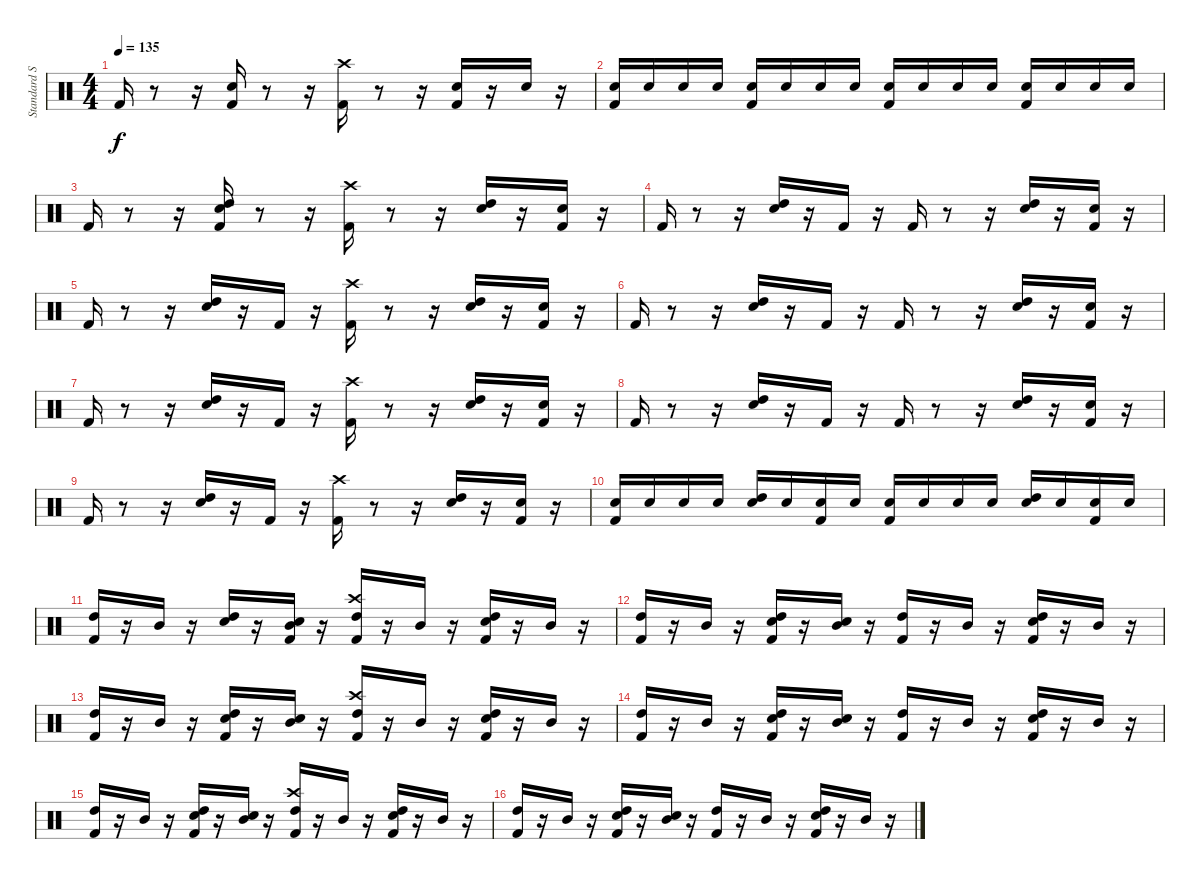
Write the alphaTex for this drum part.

\track ("Standard Set 1" "Standard S") {instrument percussion}
\staff {score}
\articulation defaults
\ts (4 4)
\tempo 135
\clef neutral
\ks c "Kick (hit) 2".16{dy f}
r.8 r.16 ("Snare (hit) 2" "Kick (hit) 2").16 r.8 r.16 ("Kick (hit) 2" "Crash high (hit)").16 r.8 r.16 ("Snare (hit) 2" "Kick (hit) 2").16 r.16 "Snare (hit) 2".16 r.16 |
("Snare (hit) 2" "Kick (hit) 2").16 "Snare (hit) 2".16 "Snare (hit) 2".16 "Snare (hit) 2".16 ("Snare (hit) 2" "Kick (hit) 2").16 "Snare (hit) 2".16 "Snare (hit) 2".16 "Snare (hit) 2".16 ("Snare (hit) 2" "Kick (hit) 2").16 "Snare (hit) 2".16 "Snare (hit) 2".16 "Snare (hit) 2".16 ("Snare (hit) 2" "Kick (hit) 2").16 "Snare (hit) 2".16 "Snare (hit) 2".16 "Snare (hit) 2".16 |
"Kick (hit) 2".16 r.8 r.16 ("Snare (hit) 2" "High Tom (hit)" "Kick (hit) 2").16 r.8 r.16 ("Kick (hit) 2" "Crash high (hit)").16 r.8 r.16 ("Snare (hit) 2" "High Tom (hit)").16 r.16 ("Snare (hit) 2" "Kick (hit) 2").16 r.16 |
"Kick (hit) 2".16 r.8 r.16 ("Snare (hit) 2" "High Tom (hit)").16 r.16 "Kick (hit) 2".16 r.16 "Kick (hit) 2".16 r.8 r.16 ("Snare (hit) 2" "High Tom (hit)").16 r.16 ("Snare (hit) 2" "Kick (hit) 2").16 r.16 |
"Kick (hit) 2".16 r.8 r.16 ("Snare (hit) 2" "High Tom (hit)").16 r.16 "Kick (hit) 2".16 r.16 ("Kick (hit) 2" "Crash high (hit)").16 r.8 r.16 ("Snare (hit) 2" "High Tom (hit)").16 r.16 ("Snare (hit) 2" "Kick (hit) 2").16 r.16 |
"Kick (hit) 2".16 r.8 r.16 ("Snare (hit) 2" "High Tom (hit)").16 r.16 "Kick (hit) 2".16 r.16 "Kick (hit) 2".16 r.8 r.16 ("Snare (hit) 2" "High Tom (hit)").16 r.16 ("Snare (hit) 2" "Kick (hit) 2").16 r.16 |
"Kick (hit) 2".16 r.8 r.16 ("Snare (hit) 2" "High Tom (hit)").16 r.16 "Kick (hit) 2".16 r.16 ("Kick (hit) 2" "Crash high (hit)").16 r.8 r.16 ("Snare (hit) 2" "High Tom (hit)").16 r.16 ("Snare (hit) 2" "Kick (hit) 2").16 r.16 |
"Kick (hit) 2".16 r.8 r.16 ("Snare (hit) 2" "High Tom (hit)").16 r.16 "Kick (hit) 2".16 r.16 "Kick (hit) 2".16 r.8 r.16 ("Snare (hit) 2" "High Tom (hit)").16 r.16 ("Snare (hit) 2" "Kick (hit) 2").16 r.16 |
"Kick (hit) 2".16 r.8 r.16 ("Snare (hit) 2" "High Tom (hit)").16 r.16 "Kick (hit) 2".16 r.16 ("Kick (hit) 2" "Crash high (hit)").16 r.8 r.16 ("Snare (hit) 2" "High Tom (hit)").16 r.16 ("Snare (hit) 2" "Kick (hit) 2").16 r.16 |
("Snare (hit) 2" "Kick (hit) 2").16 "Snare (hit) 2".16 "Snare (hit) 2".16 "Snare (hit) 2".16 ("Snare (hit) 2" "High Tom (hit)").16 "Snare (hit) 2".16 ("Snare (hit) 2" "Kick (hit) 2").16 "Snare (hit) 2".16 ("Snare (hit) 2" "Kick (hit) 2").16 "Snare (hit) 2".16 "Snare (hit) 2".16 "Snare (hit) 2".16 ("Snare (hit) 2" "High Tom (hit)").16 "Snare (hit) 2".16 ("Snare (hit) 2" "Kick (hit) 2").16 "Snare (hit) 2".16 |
("High Tom (hit)" "Kick (hit) 2").16 r.16 "Mid Tom (hit)".16 r.16 ("Snare (hit) 2" "High Tom (hit)").16 r.16 ("Snare (hit) 2" "Mid Tom (hit)" "Kick (hit) 2").16 r.16 ("High Tom (hit)" "Kick (hit) 2" "Crash high (hit)").16 r.16 "Mid Tom (hit)".16 r.16 ("Snare (hit) 2" "High Tom (hit)" "Kick (hit) 2").16 r.16 "Mid Tom (hit)".16 r.16 |
("High Tom (hit)" "Kick (hit) 2").16 r.16 "Mid Tom (hit)".16 r.16 ("Snare (hit) 2" "High Tom (hit)" "Kick (hit) 2").16 r.16 ("Snare (hit) 2" "Mid Tom (hit)").16 r.16 ("High Tom (hit)" "Kick (hit) 2").16 r.16 "Mid Tom (hit)".16 r.16 ("Snare (hit) 2" "High Tom (hit)" "Kick (hit) 2").16 r.16 "Mid Tom (hit)".16 r.16 |
("High Tom (hit)" "Kick (hit) 2").16 r.16 "Mid Tom (hit)".16 r.16 ("Snare (hit) 2" "High Tom (hit)" "Kick (hit) 2").16 r.16 ("Snare (hit) 2" "Mid Tom (hit)").16 r.16 ("High Tom (hit)" "Kick (hit) 2" "Crash high (hit)").16 r.16 "Mid Tom (hit)".16 r.16 ("Snare (hit) 2" "High Tom (hit)" "Kick (hit) 2").16 r.16 "Mid Tom (hit)".16 r.16 |
("High Tom (hit)" "Kick (hit) 2").16 r.16 "Mid Tom (hit)".16 r.16 ("Snare (hit) 2" "High Tom (hit)" "Kick (hit) 2").16 r.16 ("Snare (hit) 2" "Mid Tom (hit)").16 r.16 ("High Tom (hit)" "Kick (hit) 2").16 r.16 "Mid Tom (hit)".16 r.16 ("Snare (hit) 2" "High Tom (hit)" "Kick (hit) 2").16 r.16 "Mid Tom (hit)".16 r.16 |
("High Tom (hit)" "Kick (hit) 2").16 r.16 "Mid Tom (hit)".16 r.16 ("Snare (hit) 2" "High Tom (hit)" "Kick (hit) 2").16 r.16 ("Snare (hit) 2" "Mid Tom (hit)").16 r.16 ("High Tom (hit)" "Kick (hit) 2" "Crash high (hit)").16 r.16 "Mid Tom (hit)".16 r.16 ("Snare (hit) 2" "High Tom (hit)" "Kick (hit) 2").16 r.16 "Mid Tom (hit)".16 r.16 |
("High Tom (hit)" "Kick (hit) 2").16 r.16 "Mid Tom (hit)".16 r.16 ("Snare (hit) 2" "High Tom (hit)" "Kick (hit) 2").16 r.16 ("Snare (hit) 2" "Mid Tom (hit)").16 r.16 ("High Tom (hit)" "Kick (hit) 2").16 r.16 "Mid Tom (hit)".16 r.16 ("Snare (hit) 2" "High Tom (hit)" "Kick (hit) 2").16 r.16 "Mid Tom (hit)".16 r.16
